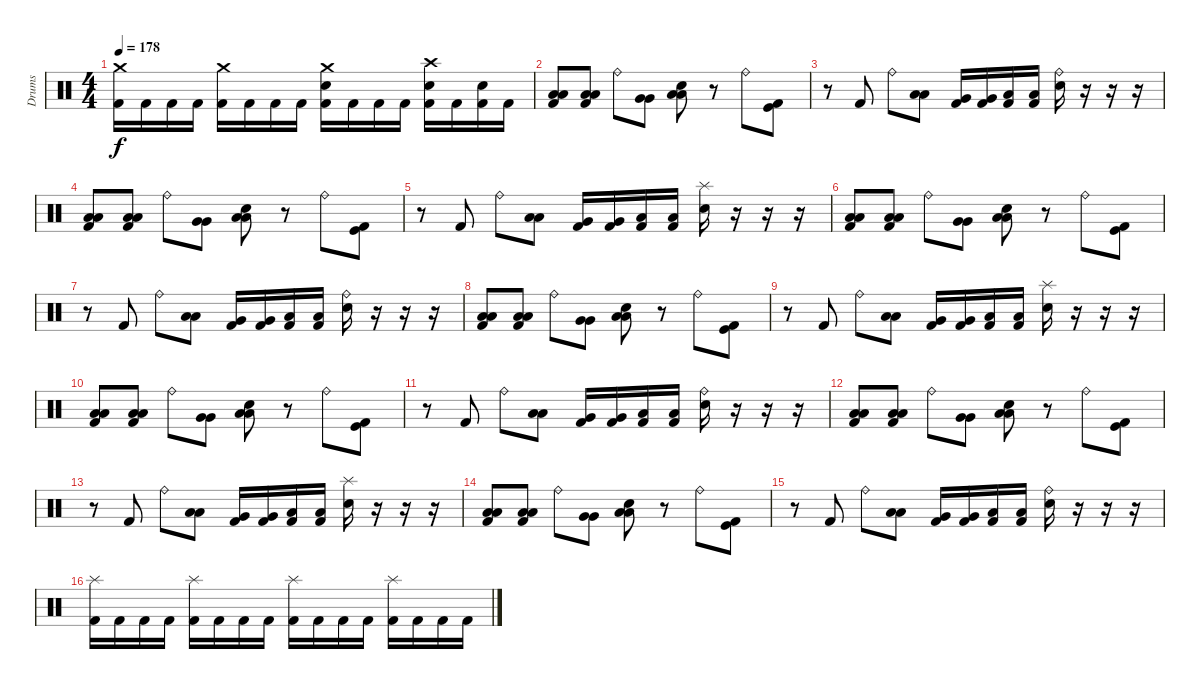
\track ("Drums" "Drums") {instrument percussion}
\staff {score}
\articulation defaults
\ts (4 4)
\tempo 178
\clef neutral
\ks c
("Crash medium (hit)" "Kick (hit) 2").16{dy f} "Kick (hit) 2".16 "Kick (hit) 2".16 "Kick (hit) 2".16 ("Crash medium (hit)" "Kick (hit) 2").16 "Kick (hit) 2".16 "Kick (hit) 2".16 "Kick (hit) 2".16 ("Crash medium (hit)" "Electric Snare (hit)" "Kick (hit) 2").16 "Kick (hit) 2".16 "Kick (hit) 2".16 "Kick (hit) 2".16 ("Crash high (hit)" "Electric Snare (hit)" "Kick (hit) 2").16 "Kick (hit) 2".16 ("Electric Snare (hit)" "Kick (hit) 2").16 "Kick (hit) 2".16 |
("Low Tom (hit)" "Low Tom (hit)" "Kick (hit) 2").8 ("Low Tom (hit)" "Low Tom (hit)" "Kick (hit) 2").8 "Ride (bell)".8 ("Very Low Tom (hit)" "Very Low Tom (hit)").8 ("Electric Snare (hit)" "Low Tom (hit)" "Low Tom (hit)").8 r.8 "Ride (bell)".8 ("Kick (hit)" "Kick (hit) 2").8 |
r.8 "Kick (hit) 2".8 "Ride (bell)".8 ("Low Tom (hit)" "Low Tom (hit)").8 ("Very Low Tom (hit)" "Kick (hit) 2").16 ("Very Low Tom (hit)" "Kick (hit) 2").16 ("Low Floor Tom (hit)" "Kick (hit) 2").16 ("Low Floor Tom (hit)" "Kick (hit) 2").16 ("Ride (bell)" "Electric Snare (hit)").16 r.16 r.16 r.16 |
("Low Tom (hit)" "Low Tom (hit)" "Kick (hit) 2").8 ("Low Tom (hit)" "Low Tom (hit)" "Kick (hit) 2").8 "Ride (bell)".8 ("Very Low Tom (hit)" "Very Low Tom (hit)").8 ("Electric Snare (hit)" "Low Tom (hit)" "Low Tom (hit)").8 r.8 "Ride (bell)".8 ("Kick (hit)" "Kick (hit) 2").8 |
r.8 "Kick (hit) 2".8 "Ride (bell)".8 ("Low Tom (hit)" "Low Tom (hit)").8 ("Very Low Tom (hit)" "Kick (hit) 2").16 ("Very Low Tom (hit)" "Kick (hit) 2").16 ("Low Floor Tom (hit)" "Kick (hit) 2").16 ("Low Floor Tom (hit)" "Kick (hit) 2").16 ("Splash (hit)" "Electric Snare (hit)").16 r.16 r.16 r.16 |
("Low Tom (hit)" "Low Tom (hit)" "Kick (hit) 2").8 ("Low Tom (hit)" "Low Tom (hit)" "Kick (hit) 2").8 "Ride (bell)".8 ("Very Low Tom (hit)" "Very Low Tom (hit)").8 ("Electric Snare (hit)" "Low Tom (hit)" "Low Tom (hit)").8 r.8 "Ride (bell)".8 ("Kick (hit)" "Kick (hit) 2").8 |
r.8 "Kick (hit) 2".8 "Ride (bell)".8 ("Low Tom (hit)" "Low Tom (hit)").8 ("Very Low Tom (hit)" "Kick (hit) 2").16 ("Very Low Tom (hit)" "Kick (hit) 2").16 ("Low Floor Tom (hit)" "Kick (hit) 2").16 ("Low Floor Tom (hit)" "Kick (hit) 2").16 ("Ride (bell)" "Electric Snare (hit)").16 r.16 r.16 r.16 |
("Low Tom (hit)" "Low Tom (hit)" "Kick (hit) 2").8 ("Low Tom (hit)" "Low Tom (hit)" "Kick (hit) 2").8 "Ride (bell)".8 ("Very Low Tom (hit)" "Very Low Tom (hit)").8 ("Electric Snare (hit)" "Low Tom (hit)" "Low Tom (hit)").8 r.8 "Ride (bell)".8 ("Kick (hit)" "Kick (hit) 2").8 |
r.8 "Kick (hit) 2".8 "Ride (bell)".8 ("Low Tom (hit)" "Low Tom (hit)").8 ("Very Low Tom (hit)" "Kick (hit) 2").16 ("Very Low Tom (hit)" "Kick (hit) 2").16 ("Low Floor Tom (hit)" "Kick (hit) 2").16 ("Low Floor Tom (hit)" "Kick (hit) 2").16 ("Splash (hit)" "Electric Snare (hit)").16 r.16 r.16 r.16 |
("Low Tom (hit)" "Low Tom (hit)" "Kick (hit) 2").8 ("Low Tom (hit)" "Low Tom (hit)" "Kick (hit) 2").8 "Ride (bell)".8 ("Very Low Tom (hit)" "Very Low Tom (hit)").8 ("Electric Snare (hit)" "Low Tom (hit)" "Low Tom (hit)").8 r.8 "Ride (bell)".8 ("Kick (hit)" "Kick (hit) 2").8 |
r.8 "Kick (hit) 2".8 "Ride (bell)".8 ("Low Tom (hit)" "Low Tom (hit)").8 ("Very Low Tom (hit)" "Kick (hit) 2").16 ("Very Low Tom (hit)" "Kick (hit) 2").16 ("Low Floor Tom (hit)" "Kick (hit) 2").16 ("Low Floor Tom (hit)" "Kick (hit) 2").16 ("Ride (bell)" "Electric Snare (hit)").16 r.16 r.16 r.16 |
("Low Tom (hit)" "Low Tom (hit)" "Kick (hit) 2").8 ("Low Tom (hit)" "Low Tom (hit)" "Kick (hit) 2").8 "Ride (bell)".8 ("Very Low Tom (hit)" "Very Low Tom (hit)").8 ("Electric Snare (hit)" "Low Tom (hit)" "Low Tom (hit)").8 r.8 "Ride (bell)".8 ("Kick (hit)" "Kick (hit) 2").8 |
r.8 "Kick (hit) 2".8 "Ride (bell)".8 ("Low Tom (hit)" "Low Tom (hit)").8 ("Very Low Tom (hit)" "Kick (hit) 2").16 ("Very Low Tom (hit)" "Kick (hit) 2").16 ("Low Floor Tom (hit)" "Kick (hit) 2").16 ("Low Floor Tom (hit)" "Kick (hit) 2").16 ("Splash (hit)" "Electric Snare (hit)").16 r.16 r.16 r.16 |
("Low Tom (hit)" "Low Tom (hit)" "Kick (hit) 2").8 ("Low Tom (hit)" "Low Tom (hit)" "Kick (hit) 2").8 "Ride (bell)".8 ("Very Low Tom (hit)" "Very Low Tom (hit)").8 ("Electric Snare (hit)" "Low Tom (hit)" "Low Tom (hit)").8 r.8 "Ride (bell)".8 ("Kick (hit)" "Kick (hit) 2").8 |
r.8 "Kick (hit) 2".8 "Ride (bell)".8 ("Low Tom (hit)" "Low Tom (hit)").8 ("Very Low Tom (hit)" "Kick (hit) 2").16 ("Very Low Tom (hit)" "Kick (hit) 2").16 ("Low Floor Tom (hit)" "Kick (hit) 2").16 ("Low Floor Tom (hit)" "Kick (hit) 2").16 ("Ride (bell)" "Electric Snare (hit)").16 r.16 r.16 r.16 |
("Splash (hit)" "Kick (hit) 2").16 "Kick (hit) 2".16 "Kick (hit) 2".16 "Kick (hit) 2".16 ("Splash (hit)" "Kick (hit) 2").16 "Kick (hit) 2".16 "Kick (hit) 2".16 "Kick (hit) 2".16 ("Splash (hit)" "Kick (hit) 2").16 "Kick (hit) 2".16 "Kick (hit) 2".16 "Kick (hit) 2".16 ("Splash (hit)" "Kick (hit) 2").16 "Kick (hit) 2".16 "Kick (hit) 2".16 "Kick (hit) 2".16
